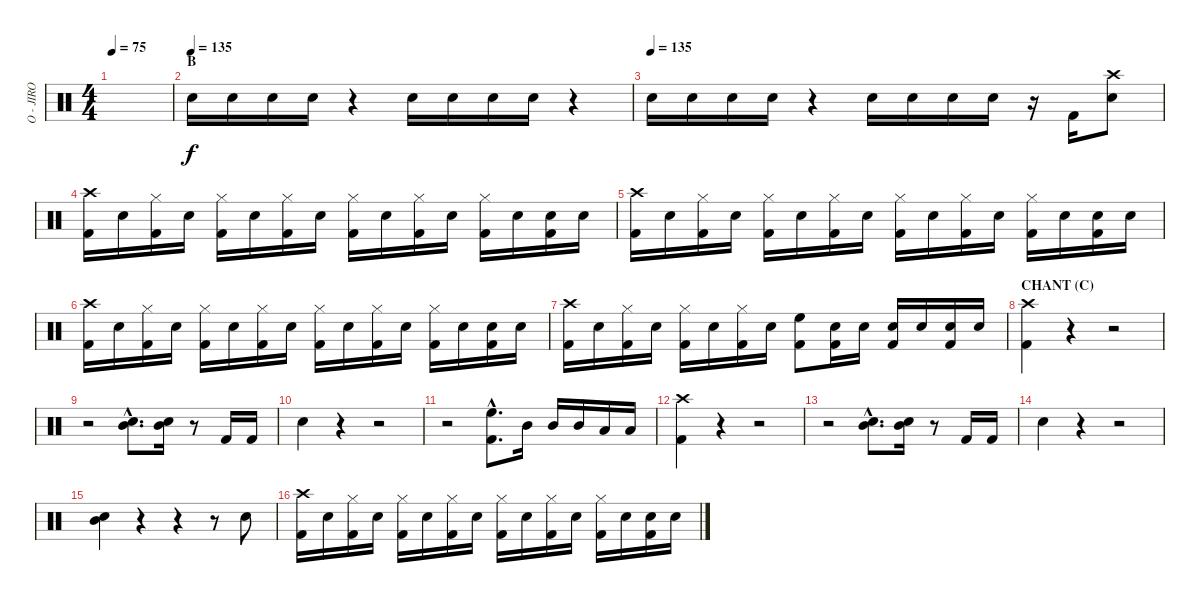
\track ("O - JIRO" "O - JIRO") {instrument percussion}
\staff {score}
\articulation defaults
\ts (4 4)
\tempo 75
\clef neutral
\ks c
|
\section ("" "B")
\tempo (135)
"Snare (hit) 2".16 "Snare (hit) 2".16 "Snare (hit) 2".16 "Snare (hit) 2".16 r.4 "Snare (hit) 2".16 "Snare (hit) 2".16 "Snare (hit) 2".16 "Snare (hit) 2".16 r.4 |
\tempo (135)
"Snare (hit) 2".16 "Snare (hit) 2".16 "Snare (hit) 2".16 "Snare (hit) 2".16 r.4 "Snare (hit) 2".16 "Snare (hit) 2".16 "Snare (hit) 2".16 "Snare (hit) 2".16 r.16 "Kick (hit) 2".16 ("Crash high (hit)" "Snare (hit) 2").8 |
("Crash high (hit)" "Kick (hit) 2").16 "Snare (hit) 2".16 ("Hi-Hat (closed)" "Kick (hit) 2").16 "Snare (hit) 2".16 ("Hi-Hat (closed)" "Kick (hit) 2").16 "Snare (hit) 2".16 ("Hi-Hat (closed)" "Kick (hit) 2").16 "Snare (hit) 2".16 ("Hi-Hat (closed)" "Kick (hit) 2").16 "Snare (hit) 2".16 ("Hi-Hat (closed)" "Kick (hit) 2").16 "Snare (hit) 2".16 ("Hi-Hat (closed)" "Kick (hit) 2").16 "Snare (hit) 2".16 ("Snare (hit) 2" "Kick (hit) 2").16 "Snare (hit) 2".16 |
("Crash high (hit)" "Kick (hit) 2").16 "Snare (hit) 2".16 ("Hi-Hat (closed)" "Kick (hit) 2").16 "Snare (hit) 2".16 ("Hi-Hat (closed)" "Kick (hit) 2").16 "Snare (hit) 2".16 ("Hi-Hat (closed)" "Kick (hit) 2").16 "Snare (hit) 2".16 ("Hi-Hat (closed)" "Kick (hit) 2").16 "Snare (hit) 2".16 ("Hi-Hat (closed)" "Kick (hit) 2").16 "Snare (hit) 2".16 ("Hi-Hat (closed)" "Kick (hit) 2").16 "Snare (hit) 2".16 ("Snare (hit) 2" "Kick (hit) 2").16 "Snare (hit) 2".16 |
("Crash high (hit)" "Kick (hit) 2").16 "Snare (hit) 2".16 ("Hi-Hat (closed)" "Kick (hit) 2").16 "Snare (hit) 2".16 ("Hi-Hat (closed)" "Kick (hit) 2").16 "Snare (hit) 2".16 ("Hi-Hat (closed)" "Kick (hit) 2").16 "Snare (hit) 2".16 ("Hi-Hat (closed)" "Kick (hit) 2").16 "Snare (hit) 2".16 ("Hi-Hat (closed)" "Kick (hit) 2").16 "Snare (hit) 2".16 ("Hi-Hat (closed)" "Kick (hit) 2").16 "Snare (hit) 2".16 ("Snare (hit) 2" "Kick (hit) 2").16 "Snare (hit) 2".16 |
("Crash high (hit)" "Kick (hit) 2").16 "Snare (hit) 2".16 ("Hi-Hat (closed)" "Kick (hit) 2").16 "Snare (hit) 2".16 ("Hi-Hat (closed)" "Kick (hit) 2").16 "Snare (hit) 2".16 ("Hi-Hat (closed)" "Kick (hit) 2").16 "Snare (hit) 2".16 ("High Floor Tom (hit)" "Kick (hit) 2").8 ("Snare (hit) 2" "Kick (hit) 2").16 "Snare (hit) 2".16 ("Snare (hit) 2" "Kick (hit) 2").16 "Snare (hit) 2".16 ("Snare (hit) 2" "Kick (hit) 2").16 "Snare (hit) 2".16 |
\section ("" "CHANT (C)")
("Crash high (hit)" "Kick (hit) 2").4 r.4 r.2 |
r.2 ("Snare (hit) 2"{hac} "Mid Tom (hit)"{hac}).8{d} ("Snare (hit) 2" "Mid Tom (hit)").16 r.8 "Kick (hit) 2".16 "Kick (hit) 2".16 |
"Snare (hit) 2".4 r.4 r.2 |
r.2 ("High Floor Tom (hit)"{hac} "Kick (hit) 2"{hac}).8{d} "Mid Tom (hit)".16 "Mid Tom (hit)".16 "Mid Tom (hit)".16 "Low Tom (hit)".16 "Low Tom (hit)".16 |
("Crash high (hit)" "Kick (hit) 2").4 r.4 r.2 |
r.2 ("Snare (hit) 2"{hac} "Mid Tom (hit)"{hac}).8{d} ("Snare (hit) 2" "Mid Tom (hit)").16 r.8 "Kick (hit) 2".16 "Kick (hit) 2".16 |
"Snare (hit) 2".4 r.4 r.2 |
("Snare (hit) 2" "Mid Tom (hit)").4 r.4 r.4 r.8 "Snare (hit) 2".8 |
("Crash high (hit)" "Kick (hit) 2").16 "Snare (hit) 2".16 ("Hi-Hat (closed)" "Kick (hit) 2").16 "Snare (hit) 2".16 ("Hi-Hat (closed)" "Kick (hit) 2").16 "Snare (hit) 2".16 ("Hi-Hat (closed)" "Kick (hit) 2").16 "Snare (hit) 2".16 ("Hi-Hat (closed)" "Kick (hit) 2").16 "Snare (hit) 2".16 ("Hi-Hat (closed)" "Kick (hit) 2").16 "Snare (hit) 2".16 ("Hi-Hat (closed)" "Kick (hit) 2").16 "Snare (hit) 2".16 ("Snare (hit) 2" "Kick (hit) 2").16 "Snare (hit) 2".16
